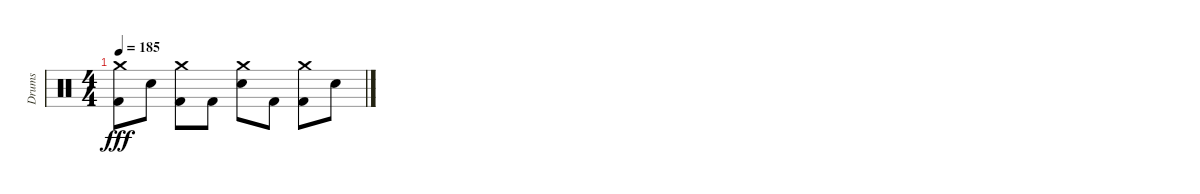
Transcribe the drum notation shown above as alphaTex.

\track ("Drums" "Drums") {instrument percussion}
\staff {score}
\articulation defaults
\ts (4 4)
\tempo 185
\clef neutral
\ks c
("Kick (hit) 2" "Crash medium (hit)").8{dy fff volume 0} "Snare (hit) 2".8 ("Kick (hit) 2" "Crash medium (hit)").8 "Kick (hit) 2".8 ("Snare (hit) 2" "Crash medium (hit)").8 "Kick (hit) 2".8 ("Kick (hit) 2" "Crash medium (hit)").8 "Snare (hit) 2".8
